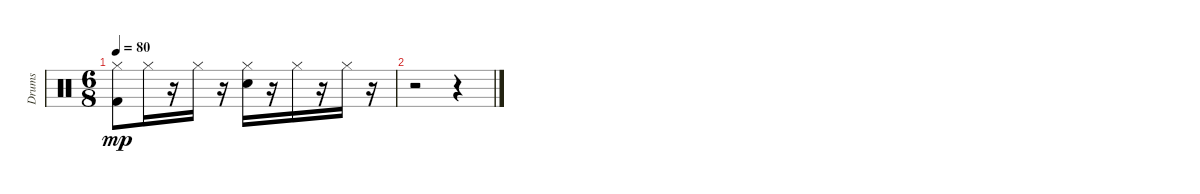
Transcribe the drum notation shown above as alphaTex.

\track ("Drums" "Drums") {instrument percussion}
\staff {score}
\articulation defaults
\ts (6 8)
\tempo 80
\clef neutral
\ks c
("Kick (hit) 2" "Hi-Hat (closed)").8{dy mp} "Hi-Hat (closed)".16 r.16 "Hi-Hat (closed)".16 r.16 ("Snare (hit) 2" "Hi-Hat (closed)").16 r.16 "Hi-Hat (closed)".16 r.16 "Hi-Hat (closed)".16 r.16 |
r.2 r.4
